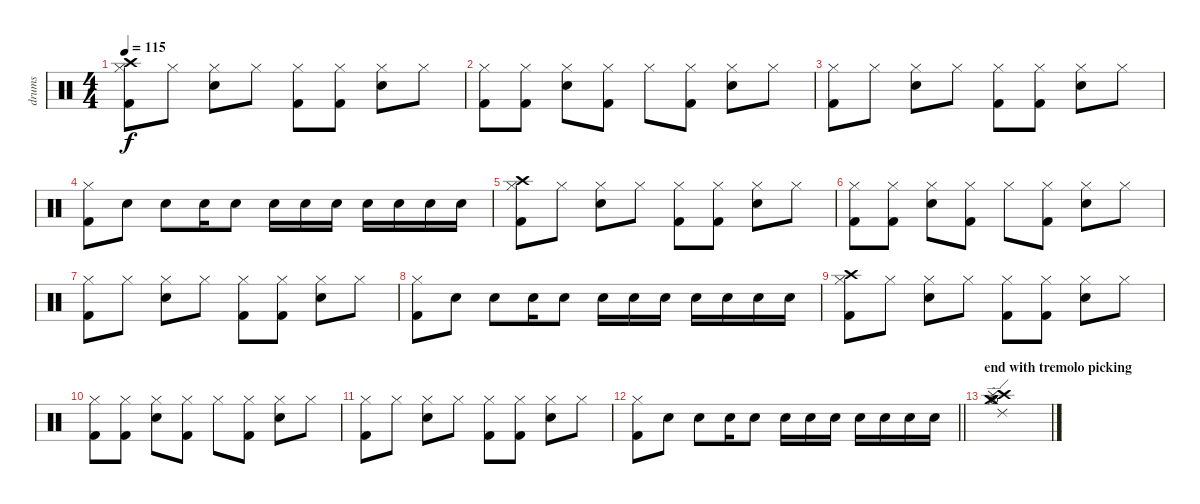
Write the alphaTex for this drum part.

\track ("drums" "drums") {instrument percussion}
\staff {score}
\articulation defaults
\ts (4 4)
\tempo 115
\clef neutral
\ks c
("Hi-Hat (closed)" "Crash high (hit)" "Kick (hit) 2").8{dy f} "Hi-Hat (closed)".8 ("Hi-Hat (closed)" "Electric Snare (hit)").8 "Hi-Hat (closed)".8 ("Hi-Hat (closed)" "Kick (hit) 2").8 ("Hi-Hat (closed)" "Kick (hit) 2").8 ("Hi-Hat (closed)" "Electric Snare (hit)").8 "Hi-Hat (closed)".8 |
("Hi-Hat (closed)" "Kick (hit) 2").8 ("Hi-Hat (closed)" "Kick (hit) 2").8 ("Hi-Hat (closed)" "Electric Snare (hit)").8 ("Hi-Hat (closed)" "Kick (hit) 2").8 "Hi-Hat (closed)".8 ("Hi-Hat (closed)" "Kick (hit) 2").8 ("Hi-Hat (closed)" "Electric Snare (hit)").8 "Hi-Hat (closed)".8 |
("Hi-Hat (closed)" "Kick (hit) 2").8 "Hi-Hat (closed)".8 ("Hi-Hat (closed)" "Electric Snare (hit)").8 "Hi-Hat (closed)".8 ("Hi-Hat (closed)" "Kick (hit) 2").8 ("Hi-Hat (closed)" "Kick (hit) 2").8 ("Hi-Hat (closed)" "Electric Snare (hit)").8 "Hi-Hat (closed)".8 |
("Hi-Hat (closed)" "Kick (hit) 2").8 "Electric Snare (hit)".8 "Electric Snare (hit)".8 "Electric Snare (hit)".16 "Electric Snare (hit)".8 "Electric Snare (hit)".16 "Electric Snare (hit)".16 "Electric Snare (hit)".16 "Electric Snare (hit)".16 "Electric Snare (hit)".16 "Electric Snare (hit)".16 "Electric Snare (hit)".16 |
("Hi-Hat (closed)" "Crash high (hit)" "Kick (hit) 2").8 "Hi-Hat (closed)".8 ("Hi-Hat (closed)" "Electric Snare (hit)").8 "Hi-Hat (closed)".8 ("Hi-Hat (closed)" "Kick (hit) 2").8 ("Hi-Hat (closed)" "Kick (hit) 2").8 ("Hi-Hat (closed)" "Electric Snare (hit)").8 "Hi-Hat (closed)".8 |
("Hi-Hat (closed)" "Kick (hit) 2").8 ("Hi-Hat (closed)" "Kick (hit) 2").8 ("Hi-Hat (closed)" "Electric Snare (hit)").8 ("Hi-Hat (closed)" "Kick (hit) 2").8 "Hi-Hat (closed)".8 ("Hi-Hat (closed)" "Kick (hit) 2").8 ("Hi-Hat (closed)" "Electric Snare (hit)").8 "Hi-Hat (closed)".8 |
("Hi-Hat (closed)" "Kick (hit) 2").8 "Hi-Hat (closed)".8 ("Hi-Hat (closed)" "Electric Snare (hit)").8 "Hi-Hat (closed)".8 ("Hi-Hat (closed)" "Kick (hit) 2").8 ("Hi-Hat (closed)" "Kick (hit) 2").8 ("Hi-Hat (closed)" "Electric Snare (hit)").8 "Hi-Hat (closed)".8 |
("Hi-Hat (closed)" "Kick (hit) 2").8 "Electric Snare (hit)".8 "Electric Snare (hit)".8 "Electric Snare (hit)".16 "Electric Snare (hit)".8 "Electric Snare (hit)".16 "Electric Snare (hit)".16 "Electric Snare (hit)".16 "Electric Snare (hit)".16 "Electric Snare (hit)".16 "Electric Snare (hit)".16 "Electric Snare (hit)".16 |
("Hi-Hat (closed)" "Crash high (hit)" "Kick (hit) 2").8 "Hi-Hat (closed)".8 ("Hi-Hat (closed)" "Electric Snare (hit)").8 "Hi-Hat (closed)".8 ("Hi-Hat (closed)" "Kick (hit) 2").8 ("Hi-Hat (closed)" "Kick (hit) 2").8 ("Hi-Hat (closed)" "Electric Snare (hit)").8 "Hi-Hat (closed)".8 |
("Hi-Hat (closed)" "Kick (hit) 2").8 ("Hi-Hat (closed)" "Kick (hit) 2").8 ("Hi-Hat (closed)" "Electric Snare (hit)").8 ("Hi-Hat (closed)" "Kick (hit) 2").8 "Hi-Hat (closed)".8 ("Hi-Hat (closed)" "Kick (hit) 2").8 ("Hi-Hat (closed)" "Electric Snare (hit)").8 "Hi-Hat (closed)".8 |
("Hi-Hat (closed)" "Kick (hit) 2").8 "Hi-Hat (closed)".8 ("Hi-Hat (closed)" "Electric Snare (hit)").8 "Hi-Hat (closed)".8 ("Hi-Hat (closed)" "Kick (hit) 2").8 ("Hi-Hat (closed)" "Kick (hit) 2").8 ("Hi-Hat (closed)" "Electric Snare (hit)").8 "Hi-Hat (closed)".8 |
\barLineRight lightlight
("Hi-Hat (closed)" "Kick (hit) 2").8 "Electric Snare (hit)".8 "Electric Snare (hit)".8 "Electric Snare (hit)".16 "Electric Snare (hit)".8 "Electric Snare (hit)".16 "Electric Snare (hit)".16 "Electric Snare (hit)".16 "Electric Snare (hit)".16 "Electric Snare (hit)".16 "Electric Snare (hit)".16 "Electric Snare (hit)".16 |
\section ("" "end with tremolo picking")
("Crash high (hit)" "Crash medium (hit)" "Ride (edge) 2" "Splash (hit)" "Hi-Hat (open)" "Hi-Hat (closed)").1
